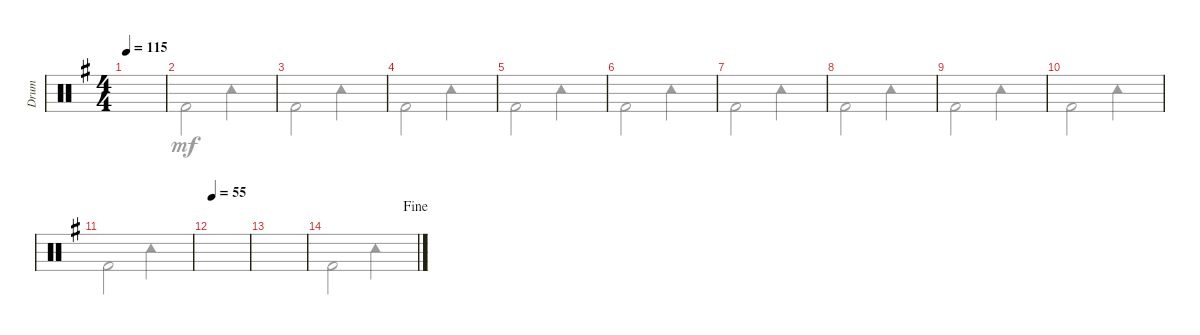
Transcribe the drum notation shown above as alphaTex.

\track ("Drum" "Drum") {instrument percussion}
\staff {score}
\articulation defaults
\voice
\ts (4 4)
\tempo 115
\clef neutral
\ks eminor
|
|
|
|
|
|
|
|
|
|
|
\tempo 55
|
|
\jump fine
\voice
\clef neutral
\ks eminor "Kick (hit) 2".2{dy mf} "Tambourine (hit)".2
|
"Kick (hit) 2".2 "Tambourine (hit)".2 |
"Kick (hit) 2".2 "Tambourine (hit)".2 |
"Kick (hit) 2".2 "Tambourine (hit)".2 |
"Kick (hit) 2".2 "Tambourine (hit)".2 |
"Kick (hit) 2".2 "Tambourine (hit)".2 |
"Kick (hit) 2".2 "Tambourine (hit)".2 |
"Kick (hit) 2".2 "Tambourine (hit)".2 |
"Kick (hit) 2".2 "Tambourine (hit)".2 |
"Kick (hit) 2".2 "Tambourine (hit)".2 |
"Kick (hit) 2".2 "Tambourine (hit)".2 |
|
|
